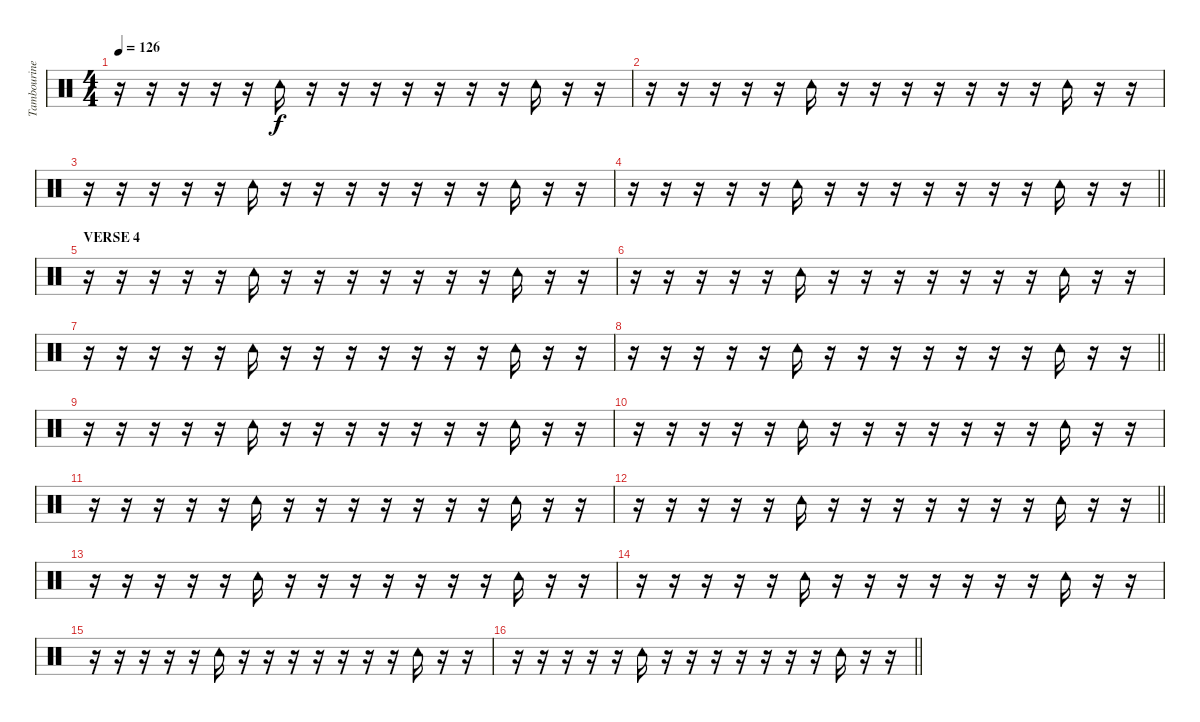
\track ("Tambourine" "Tambourine") {instrument percussion}
\staff {score}
\articulation defaults
\ts (4 4)
\tempo 126
\clef neutral
\ks c
r.16{dy f} r.16 r.16 r.16 r.16 "Tambourine (hit)".16 r.16 r.16 r.16 r.16 r.16 r.16 r.16 "Tambourine (hit)".16 r.16 r.16 |
r.16 r.16 r.16 r.16 r.16 "Tambourine (hit)".16 r.16 r.16 r.16 r.16 r.16 r.16 r.16 "Tambourine (hit)".16 r.16 r.16 |
r.16 r.16 r.16 r.16 r.16 "Tambourine (hit)".16 r.16 r.16 r.16 r.16 r.16 r.16 r.16 "Tambourine (hit)".16 r.16 r.16 |
\barLineRight lightlight
r.16 r.16 r.16 r.16 r.16 "Tambourine (hit)".16 r.16 r.16 r.16 r.16 r.16 r.16 r.16 "Tambourine (hit)".16 r.16 r.16 |
\section ("" "VERSE 4")
r.16 r.16 r.16 r.16 r.16 "Tambourine (hit)".16 r.16 r.16 r.16 r.16 r.16 r.16 r.16 "Tambourine (hit)".16 r.16 r.16 |
r.16 r.16 r.16 r.16 r.16 "Tambourine (hit)".16 r.16 r.16 r.16 r.16 r.16 r.16 r.16 "Tambourine (hit)".16 r.16 r.16 |
r.16 r.16 r.16 r.16 r.16 "Tambourine (hit)".16 r.16 r.16 r.16 r.16 r.16 r.16 r.16 "Tambourine (hit)".16 r.16 r.16 |
\barLineRight lightlight
r.16 r.16 r.16 r.16 r.16 "Tambourine (hit)".16 r.16 r.16 r.16 r.16 r.16 r.16 r.16 "Tambourine (hit)".16 r.16 r.16 |
r.16 r.16 r.16 r.16 r.16 "Tambourine (hit)".16 r.16 r.16 r.16 r.16 r.16 r.16 r.16 "Tambourine (hit)".16 r.16 r.16 |
r.16 r.16 r.16 r.16 r.16 "Tambourine (hit)".16 r.16 r.16 r.16 r.16 r.16 r.16 r.16 "Tambourine (hit)".16 r.16 r.16 |
r.16 r.16 r.16 r.16 r.16 "Tambourine (hit)".16 r.16 r.16 r.16 r.16 r.16 r.16 r.16 "Tambourine (hit)".16 r.16 r.16 |
\barLineRight lightlight
r.16 r.16 r.16 r.16 r.16 "Tambourine (hit)".16 r.16 r.16 r.16 r.16 r.16 r.16 r.16 "Tambourine (hit)".16 r.16 r.16 |
r.16 r.16 r.16 r.16 r.16 "Tambourine (hit)".16 r.16 r.16 r.16 r.16 r.16 r.16 r.16 "Tambourine (hit)".16 r.16 r.16 |
r.16 r.16 r.16 r.16 r.16 "Tambourine (hit)".16 r.16 r.16 r.16 r.16 r.16 r.16 r.16 "Tambourine (hit)".16 r.16 r.16 |
r.16 r.16 r.16 r.16 r.16 "Tambourine (hit)".16 r.16 r.16 r.16 r.16 r.16 r.16 r.16 "Tambourine (hit)".16 r.16 r.16 |
\barLineRight lightlight
r.16 r.16 r.16 r.16 r.16 "Tambourine (hit)".16 r.16 r.16 r.16 r.16 r.16 r.16 r.16 "Tambourine (hit)".16 r.16 r.16
